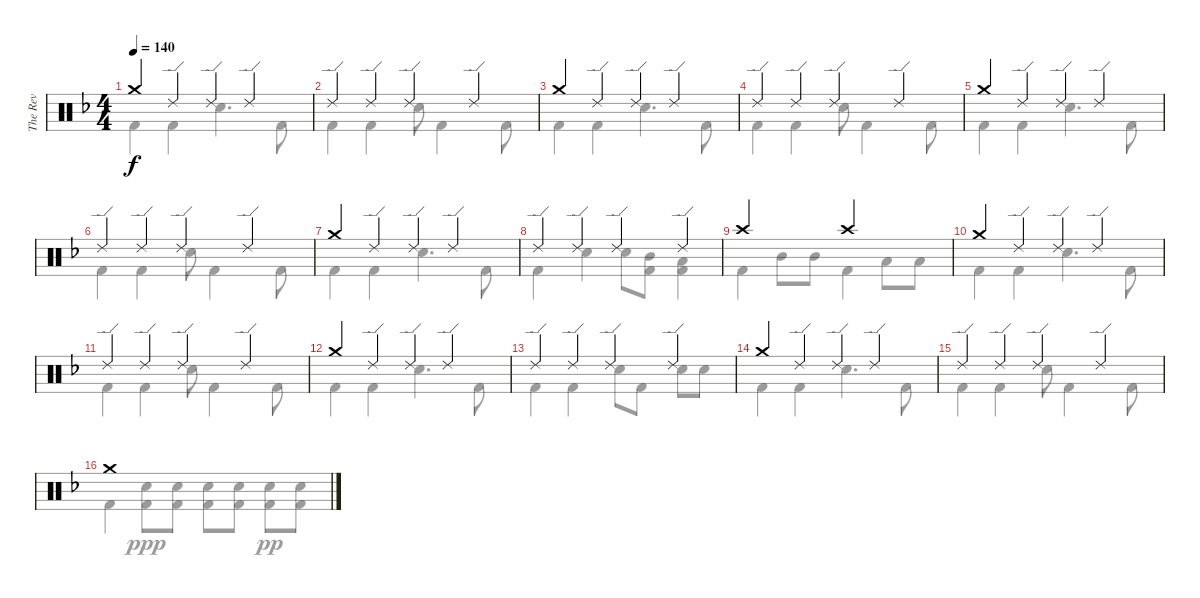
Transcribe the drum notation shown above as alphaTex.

\track ("The Rev" "The Rev") {instrument percussion}
\staff {score}
\articulation defaults
\voice
\ts (4 4)
\tempo 140
\clef neutral
\ks dminor "Crash medium (hit)".4{dy f} "Ride (edge) 2".4 "Ride (edge) 2".4 "Ride (edge) 2".4
|
"Ride (edge) 2".4 "Ride (edge) 2".4 "Ride (edge) 2".4 "Ride (edge) 2".4 |
"Crash medium (hit)".4 "Ride (edge) 2".4 "Ride (edge) 2".4 "Ride (edge) 2".4 |
"Ride (edge) 2".4 "Ride (edge) 2".4 "Ride (edge) 2".4 "Ride (edge) 2".4 |
"Crash medium (hit)".4 "Ride (edge) 2".4 "Ride (edge) 2".4 "Ride (edge) 2".4 |
"Ride (edge) 2".4 "Ride (edge) 2".4 "Ride (edge) 2".4 "Ride (edge) 2".4 |
"Crash medium (hit)".4 "Ride (edge) 2".4 "Ride (edge) 2".4 "Ride (edge) 2".4 |
"Ride (edge) 2".4 "Ride (edge) 2".4 "Ride (edge) 2".4 "Ride (edge) 2".4 |
"Crash high (hit)".2 "Crash high (hit)".2 |
"Crash medium (hit)".4 "Ride (edge) 2".4 "Ride (edge) 2".4 "Ride (edge) 2".4 |
"Ride (edge) 2".4 "Ride (edge) 2".4 "Ride (edge) 2".4 "Ride (edge) 2".4 |
"Crash medium (hit)".4 "Ride (edge) 2".4 "Ride (edge) 2".4 "Ride (edge) 2".4 |
"Ride (edge) 2".4 "Ride (edge) 2".4 "Ride (edge) 2".4 "Ride (edge) 2".4 |
"Crash medium (hit)".4 "Ride (edge) 2".4 "Ride (edge) 2".4 "Ride (edge) 2".4 |
"Ride (edge) 2".4 "Ride (edge) 2".4 "Ride (edge) 2".4 "Ride (edge) 2".4 |
"Crash medium (hit)".1
\voice
\clef neutral
\ottava regular
\simile none
\ks dminor "Kick (hit) 2".4{dy f} "Kick (hit) 2".4 "Electric Snare (hit)".4{d} "Kick (hit) 2".8
|
"Kick (hit) 2".4 "Kick (hit) 2".4 "Electric Snare (hit)".8 "Kick (hit) 2".4 "Kick (hit) 2".8 |
"Kick (hit) 2".4 "Kick (hit) 2".4 "Electric Snare (hit)".4{d} "Kick (hit) 2".8 |
"Kick (hit) 2".4 "Kick (hit) 2".4 "Electric Snare (hit)".8 "Kick (hit) 2".4 "Kick (hit) 2".8 |
"Kick (hit) 2".4 "Kick (hit) 2".4 "Electric Snare (hit)".4{d} "Kick (hit) 2".8 |
"Kick (hit) 2".4 "Kick (hit) 2".4 "Electric Snare (hit)".8 "Kick (hit) 2".4 "Kick (hit) 2".8 |
"Kick (hit) 2".4 "Kick (hit) 2".4 "Electric Snare (hit)".4{d} "Kick (hit) 2".8 |
"Kick (hit) 2".4 "Electric Snare (hit)".4 "Electric Snare (hit)".8 ("Mid Tom (hit)" "Kick (hit) 2").8 ("Low Tom (hit)" "Kick (hit) 2").4 |
"Kick (hit) 2".4 "Mid Tom (hit)".8 "Mid Tom (hit)".8 "Kick (hit) 2".4 "Low Tom (hit)".8 "Low Tom (hit)".8 |
"Kick (hit) 2".4 "Kick (hit) 2".4 "Electric Snare (hit)".4{d} "Kick (hit) 2".8 |
"Kick (hit) 2".4 "Kick (hit) 2".4 "Electric Snare (hit)".8 "Kick (hit) 2".4 "Kick (hit) 2".8 |
"Kick (hit) 2".4 "Kick (hit) 2".4 "Electric Snare (hit)".4{d} "Kick (hit) 2".8 |
"Kick (hit) 2".4 "Kick (hit) 2".4 "Electric Snare (hit)".8 "Kick (hit) 2".8 "Electric Snare (hit)".8 "Electric Snare (hit)".8 |
"Kick (hit) 2".4 "Kick (hit) 2".4 "Electric Snare (hit)".4{d} "Kick (hit) 2".8 |
"Kick (hit) 2".4 "Kick (hit) 2".4 "Electric Snare (hit)".8 "Kick (hit) 2".4 "Kick (hit) 2".8 |
"Kick (hit) 2".4 ("Electric Snare (hit)" "Kick (hit) 2").8{dy ppp} ("Electric Snare (hit)" "Kick (hit) 2").8 ("Electric Snare (hit)" "Kick (hit) 2").8 ("Electric Snare (hit)" "Kick (hit) 2").8 ("Electric Snare (hit)" "Kick (hit) 2").8{dy pp} ("Electric Snare (hit)" "Kick (hit) 2").8
